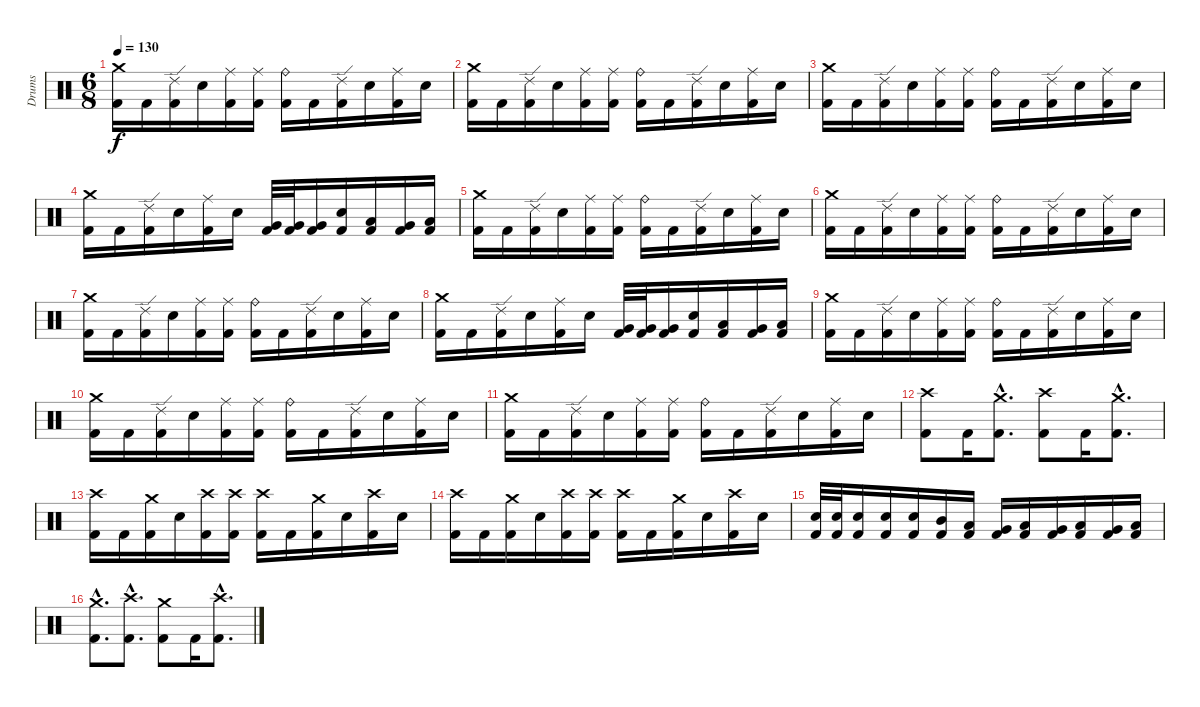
\track ("Drums" "Drums") {instrument percussion}
\staff {score}
\articulation defaults
\ts (6 8)
\section ("" "")
\tempo 130
\clef neutral
\ks c
("Crash medium (hit)" "Kick (hit) 2").16{dy f} "Kick (hit) 2".16 ("Ride (edge) 2" "Kick (hit) 2").16 "Electric Snare (hit)".16 ("Ride (middle)" "Kick (hit) 2").16 ("Ride (middle)" "Kick (hit) 2").16 ("Ride (bell)" "Kick (hit) 2").16 "Kick (hit) 2".16 ("Ride (edge) 2" "Kick (hit) 2").16 "Electric Snare (hit)".16 ("Ride (middle)" "Kick (hit) 2").16 "Electric Snare (hit)".16 |
("Crash medium (hit)" "Kick (hit) 2").16 "Kick (hit) 2".16 ("Ride (edge) 2" "Kick (hit) 2").16 "Electric Snare (hit)".16 ("Ride (middle)" "Kick (hit) 2").16 ("Ride (middle)" "Kick (hit) 2").16 ("Ride (bell)" "Kick (hit) 2").16 "Kick (hit) 2".16 ("Ride (edge) 2" "Kick (hit) 2").16 "Electric Snare (hit)".16 ("Ride (middle)" "Kick (hit) 2").16 "Electric Snare (hit)".16 |
("Crash medium (hit)" "Kick (hit) 2").16 "Kick (hit) 2".16 ("Ride (edge) 2" "Kick (hit) 2").16 "Electric Snare (hit)".16 ("Ride (middle)" "Kick (hit) 2").16 ("Ride (middle)" "Kick (hit) 2").16 ("Ride (bell)" "Kick (hit) 2").16 "Kick (hit) 2".16 ("Ride (edge) 2" "Kick (hit) 2").16 "Electric Snare (hit)".16 ("Ride (middle)" "Kick (hit) 2").16 "Electric Snare (hit)".16 |
("Crash medium (hit)" "Kick (hit) 2").16 "Kick (hit) 2".16 ("Ride (edge) 2" "Kick (hit) 2").16 "Electric Snare (hit)".16 ("Ride (middle)" "Kick (hit) 2").16 "Electric Snare (hit)".16 ("Very Low Tom (hit)" "Kick (hit) 2").32 ("Very Low Tom (hit)" "Kick (hit) 2").32 ("Very Low Tom (hit)" "Kick (hit) 2").16 ("Electric Snare (hit)" "Kick (hit) 2").16 ("Low Tom (hit)" "Kick (hit) 2").16 ("Very Low Tom (hit)" "Kick (hit) 2").16 ("Low Floor Tom (hit)" "Kick (hit) 2").16 |
("Crash medium (hit)" "Kick (hit) 2").16 "Kick (hit) 2".16 ("Ride (edge) 2" "Kick (hit) 2").16 "Electric Snare (hit)".16 ("Ride (middle)" "Kick (hit) 2").16 ("Ride (middle)" "Kick (hit) 2").16 ("Ride (bell)" "Kick (hit) 2").16 "Kick (hit) 2".16 ("Ride (edge) 2" "Kick (hit) 2").16 "Electric Snare (hit)".16 ("Ride (middle)" "Kick (hit) 2").16 "Electric Snare (hit)".16 |
("Crash medium (hit)" "Kick (hit) 2").16 "Kick (hit) 2".16 ("Ride (edge) 2" "Kick (hit) 2").16 "Electric Snare (hit)".16 ("Ride (middle)" "Kick (hit) 2").16 ("Ride (middle)" "Kick (hit) 2").16 ("Ride (bell)" "Kick (hit) 2").16 "Kick (hit) 2".16 ("Ride (edge) 2" "Kick (hit) 2").16 "Electric Snare (hit)".16 ("Ride (middle)" "Kick (hit) 2").16 "Electric Snare (hit)".16 |
("Crash medium (hit)" "Kick (hit) 2").16 "Kick (hit) 2".16 ("Ride (edge) 2" "Kick (hit) 2").16 "Electric Snare (hit)".16 ("Ride (middle)" "Kick (hit) 2").16 ("Ride (middle)" "Kick (hit) 2").16 ("Ride (bell)" "Kick (hit) 2").16 "Kick (hit) 2".16 ("Ride (edge) 2" "Kick (hit) 2").16 "Electric Snare (hit)".16 ("Ride (middle)" "Kick (hit) 2").16 "Electric Snare (hit)".16 |
("Crash medium (hit)" "Kick (hit) 2").16 "Kick (hit) 2".16 ("Ride (edge) 2" "Kick (hit) 2").16 "Electric Snare (hit)".16 ("Ride (middle)" "Kick (hit) 2").16 "Electric Snare (hit)".16 ("Very Low Tom (hit)" "Kick (hit) 2").32 ("Very Low Tom (hit)" "Kick (hit) 2").32 ("Very Low Tom (hit)" "Kick (hit) 2").16 ("Electric Snare (hit)" "Kick (hit) 2").16 ("Low Tom (hit)" "Kick (hit) 2").16 ("Very Low Tom (hit)" "Kick (hit) 2").16 ("Low Floor Tom (hit)" "Kick (hit) 2").16 |
("Crash medium (hit)" "Kick (hit) 2").16 "Kick (hit) 2".16 ("Ride (edge) 2" "Kick (hit) 2").16 "Electric Snare (hit)".16 ("Ride (middle)" "Kick (hit) 2").16 ("Ride (middle)" "Kick (hit) 2").16 ("Ride (bell)" "Kick (hit) 2").16 "Kick (hit) 2".16 ("Ride (edge) 2" "Kick (hit) 2").16 "Electric Snare (hit)".16 ("Ride (middle)" "Kick (hit) 2").16 "Electric Snare (hit)".16 |
("Crash medium (hit)" "Kick (hit) 2").16 "Kick (hit) 2".16 ("Ride (edge) 2" "Kick (hit) 2").16 "Electric Snare (hit)".16 ("Ride (middle)" "Kick (hit) 2").16 ("Ride (middle)" "Kick (hit) 2").16 ("Ride (bell)" "Kick (hit) 2").16 "Kick (hit) 2".16 ("Ride (edge) 2" "Kick (hit) 2").16 "Electric Snare (hit)".16 ("Ride (middle)" "Kick (hit) 2").16 "Electric Snare (hit)".16 |
("Crash medium (hit)" "Kick (hit) 2").16 "Kick (hit) 2".16 ("Ride (edge) 2" "Kick (hit) 2").16 "Electric Snare (hit)".16 ("Ride (middle)" "Kick (hit) 2").16 ("Ride (middle)" "Kick (hit) 2").16 ("Ride (bell)" "Kick (hit) 2").16 "Kick (hit) 2".16 ("Ride (edge) 2" "Kick (hit) 2").16 "Electric Snare (hit)".16 ("Ride (middle)" "Kick (hit) 2").16 "Electric Snare (hit)".16 |
("Crash high (hit)" "Kick (hit) 2").8 "Kick (hit) 2".16 ("Crash medium (hit)"{hac} "Kick (hit) 2"{hac}).8{d} ("Crash high (hit)" "Kick (hit) 2").8 "Kick (hit) 2".16 ("Crash medium (hit)"{hac} "Kick (hit) 2"{hac}).8{d} |
("Crash high (hit)" "Kick (hit) 2").16 "Kick (hit) 2".16 ("Crash medium (hit)" "Kick (hit) 2").16 "Electric Snare (hit)".16 ("Crash high (hit)" "Kick (hit) 2").16 ("Crash high (hit)" "Kick (hit) 2").16 ("Crash high (hit)" "Kick (hit) 2").16 "Kick (hit) 2".16 ("Crash medium (hit)" "Kick (hit) 2").16 "Electric Snare (hit)".16 ("Crash high (hit)" "Kick (hit) 2").16 "Electric Snare (hit)".16 |
("Crash high (hit)" "Kick (hit) 2").16 "Kick (hit) 2".16 ("Crash medium (hit)" "Kick (hit) 2").16 "Electric Snare (hit)".16 ("Crash high (hit)" "Kick (hit) 2").16 ("Crash high (hit)" "Kick (hit) 2").16 ("Crash high (hit)" "Kick (hit) 2").16 "Kick (hit) 2".16 ("Crash medium (hit)" "Kick (hit) 2").16 "Electric Snare (hit)".16 ("Crash high (hit)" "Kick (hit) 2").16 "Electric Snare (hit)".16 |
("Electric Snare (hit)" "Kick (hit) 2").32 ("Electric Snare (hit)" "Kick (hit) 2").32 ("Electric Snare (hit)" "Kick (hit) 2").16 ("Electric Snare (hit)" "Kick (hit) 2").16 ("Electric Snare (hit)" "Kick (hit) 2").16 ("Mid Tom (hit)" "Kick (hit) 2").16 ("Low Tom (hit)" "Kick (hit) 2").16 ("Very Low Tom (hit)" "Kick (hit) 2").16 ("Low Tom (hit)" "Kick (hit) 2").16 ("Very Low Tom (hit)" "Kick (hit) 2").16 ("Low Floor Tom (hit)" "Kick (hit) 2").16 ("Very Low Tom (hit)" "Kick (hit) 2").16 ("Low Floor Tom (hit)" "Kick (hit) 2").16 |
("Crash medium (hit)"{hac} "Kick (hit) 2"{hac}).8{d} ("Crash high (hit)"{hac} "Kick (hit) 2"{hac}).8{d} ("Crash medium (hit)" "Kick (hit) 2").8 "Kick (hit) 2".16 ("Crash high (hit)"{hac} "Kick (hit) 2"{hac}).8{d}
